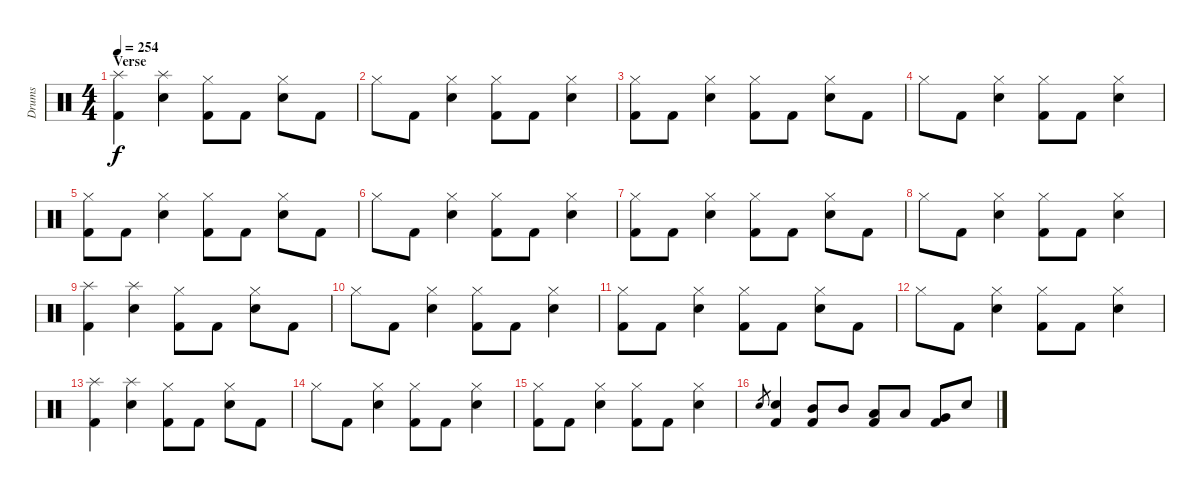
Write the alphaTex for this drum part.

\track ("Drums" "Drums") {instrument percussion}
\staff {score}
\articulation defaults
\ts (4 4)
\section ("" "Verse")
\tempo 254
\clef neutral
\ks c
("Splash (hit)" "Kick (hit) 2").4{dy f} ("Splash (hit)" "Electric Snare (hit)").4 ("Hi-Hat (closed)" "Kick (hit) 2").8 "Kick (hit) 2".8 ("Hi-Hat (closed)" "Electric Snare (hit)").8 "Kick (hit) 2".8 |
"Hi-Hat (closed)".8 "Kick (hit) 2".8 ("Hi-Hat (closed)" "Electric Snare (hit)").4 ("Hi-Hat (closed)" "Kick (hit) 2").8 "Kick (hit) 2".8 ("Hi-Hat (closed)" "Electric Snare (hit)").4 |
("Hi-Hat (closed)" "Kick (hit) 2").8 "Kick (hit) 2".8 ("Hi-Hat (closed)" "Electric Snare (hit)").4 ("Hi-Hat (closed)" "Kick (hit) 2").8 "Kick (hit) 2".8 ("Hi-Hat (closed)" "Electric Snare (hit)").8 "Kick (hit) 2".8 |
"Hi-Hat (closed)".8 "Kick (hit) 2".8 ("Hi-Hat (closed)" "Electric Snare (hit)").4 ("Hi-Hat (closed)" "Kick (hit) 2").8 "Kick (hit) 2".8 ("Hi-Hat (closed)" "Electric Snare (hit)").4 |
("Hi-Hat (closed)" "Kick (hit) 2").8 "Kick (hit) 2".8 ("Hi-Hat (closed)" "Electric Snare (hit)").4 ("Hi-Hat (closed)" "Kick (hit) 2").8 "Kick (hit) 2".8 ("Hi-Hat (closed)" "Electric Snare (hit)").8 "Kick (hit) 2".8 |
"Hi-Hat (closed)".8 "Kick (hit) 2".8 ("Hi-Hat (closed)" "Electric Snare (hit)").4 ("Hi-Hat (closed)" "Kick (hit) 2").8 "Kick (hit) 2".8 ("Hi-Hat (closed)" "Electric Snare (hit)").4 |
("Hi-Hat (closed)" "Kick (hit) 2").8 "Kick (hit) 2".8 ("Hi-Hat (closed)" "Electric Snare (hit)").4 ("Hi-Hat (closed)" "Kick (hit) 2").8 "Kick (hit) 2".8 ("Hi-Hat (closed)" "Electric Snare (hit)").8 "Kick (hit) 2".8 |
"Hi-Hat (closed)".8 "Kick (hit) 2".8 ("Hi-Hat (closed)" "Electric Snare (hit)").4 ("Hi-Hat (closed)" "Kick (hit) 2").8 "Kick (hit) 2".8 ("Hi-Hat (closed)" "Electric Snare (hit)").4 |
("Splash (hit)" "Kick (hit) 2").4 ("Splash (hit)" "Electric Snare (hit)").4 ("Hi-Hat (closed)" "Kick (hit) 2").8 "Kick (hit) 2".8 ("Hi-Hat (closed)" "Electric Snare (hit)").8 "Kick (hit) 2".8 |
"Hi-Hat (closed)".8 "Kick (hit) 2".8 ("Hi-Hat (closed)" "Electric Snare (hit)").4 ("Hi-Hat (closed)" "Kick (hit) 2").8 "Kick (hit) 2".8 ("Hi-Hat (closed)" "Electric Snare (hit)").4 |
("Hi-Hat (closed)" "Kick (hit) 2").8 "Kick (hit) 2".8 ("Hi-Hat (closed)" "Electric Snare (hit)").4 ("Hi-Hat (closed)" "Kick (hit) 2").8 "Kick (hit) 2".8 ("Hi-Hat (closed)" "Electric Snare (hit)").8 "Kick (hit) 2".8 |
"Hi-Hat (closed)".8 "Kick (hit) 2".8 ("Hi-Hat (closed)" "Electric Snare (hit)").4 ("Hi-Hat (closed)" "Kick (hit) 2").8 "Kick (hit) 2".8 ("Hi-Hat (closed)" "Electric Snare (hit)").4 |
("Splash (hit)" "Kick (hit) 2").4 ("Splash (hit)" "Electric Snare (hit)").4 ("Hi-Hat (closed)" "Kick (hit) 2").8 "Kick (hit) 2".8 ("Hi-Hat (closed)" "Electric Snare (hit)").8 "Kick (hit) 2".8 |
"Hi-Hat (closed)".8 "Kick (hit) 2".8 ("Hi-Hat (closed)" "Electric Snare (hit)").4 ("Hi-Hat (closed)" "Kick (hit) 2").8 "Kick (hit) 2".8 ("Hi-Hat (closed)" "Electric Snare (hit)").4 |
("Hi-Hat (closed)" "Kick (hit) 2").8 "Kick (hit) 2".8 ("Hi-Hat (closed)" "Electric Snare (hit)").4 ("Hi-Hat (closed)" "Kick (hit) 2").8 "Kick (hit) 2".8 ("Hi-Hat (closed)" "Electric Snare (hit)").4 |
"Electric Snare (hit)".8{gr} ("Electric Snare (hit)" "Kick (hit) 2").4 ("Mid Tom (hit)" "Kick (hit) 2").8 "Mid Tom (hit)".8 ("Low Tom (hit)" "Kick (hit) 2").8 "Low Tom (hit)".8 ("Very Low Tom (hit)" "Kick (hit) 2").8 "Electric Snare (hit)".8
